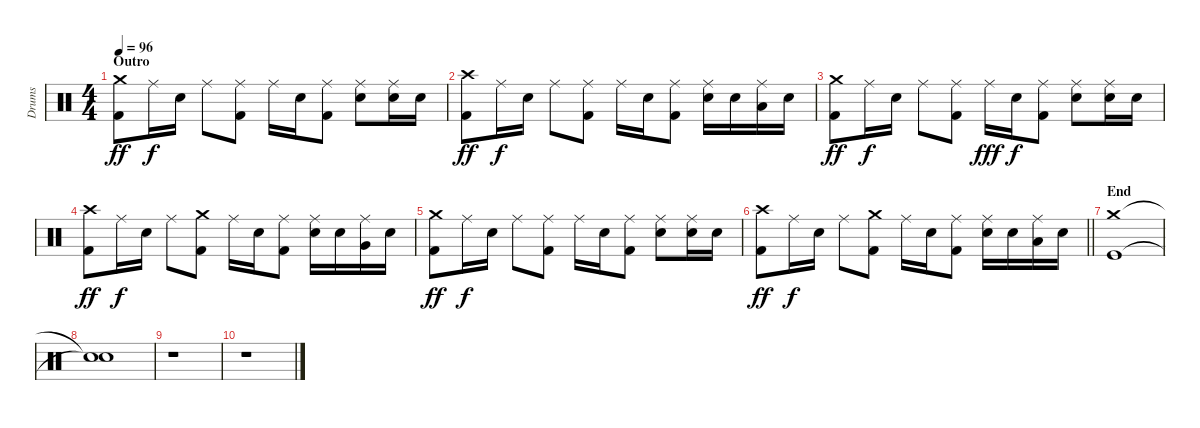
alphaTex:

\track ("Drums" "Drums") {instrument percussion}
\staff {score}
\articulation defaults
\ts (4 4)
\section ("" "Outro")
\tempo 96
\clef neutral
\ks c
("Crash medium (hit)" "Kick (hit) 2").8{dy ff} "Ride (middle)".16{dy f} "Snare (hit) 2".16 "Ride (middle)".8 ("Ride (middle)" "Kick (hit) 2").8 "Ride (middle)".16 "Snare (hit) 2".16 ("Ride (middle)" "Kick (hit) 2").8 ("Ride (middle)" "Snare (hit) 2").8 ("Ride (middle)" "Snare (hit) 2").16 "Snare (hit) 2".16 |
("Crash high (hit)" "Kick (hit) 2").8{dy ff} "Ride (middle)".16{dy f} "Snare (hit) 2".16 "Ride (middle)".8 ("Ride (middle)" "Kick (hit) 2").8 "Ride (middle)".16 "Snare (hit) 2".16 ("Ride (middle)" "Kick (hit) 2").8 ("Ride (middle)" "Snare (hit) 2").16 "Snare (hit) 2".16 ("Ride (middle)" "Low Tom (hit)").16 "Snare (hit) 2".16 |
("Crash medium (hit)" "Kick (hit) 2").8{dy ff} "Ride (middle)".16{dy f} "Snare (hit) 2".16 "Ride (middle)".8 ("Ride (middle)" "Kick (hit) 2").8 "Ride (middle)".16{dy fff} "Snare (hit) 2".16{dy f} ("Ride (middle)" "Kick (hit) 2").8 ("Ride (middle)" "Snare (hit) 2").8 ("Ride (middle)" "Snare (hit) 2").16 "Snare (hit) 2".16 |
("Crash high (hit)" "Kick (hit) 2").8{dy ff} "Ride (middle)".16{dy f} "Snare (hit) 2".16 "Ride (middle)".8 ("Crash medium (hit)" "Kick (hit) 2").8 "Ride (middle)".16 "Snare (hit) 2".16 ("Ride (middle)" "Kick (hit) 2").8 ("Ride (middle)" "Snare (hit) 2").16 "Snare (hit) 2".16 ("Ride (middle)" "Very Low Tom (hit)").16 "Snare (hit) 2".16 |
("Crash medium (hit)" "Kick (hit) 2").8{dy ff} "Ride (middle)".16{dy f} "Snare (hit) 2".16 "Ride (middle)".8 ("Ride (middle)" "Kick (hit) 2").8 "Ride (middle)".16 "Snare (hit) 2".16 ("Ride (middle)" "Kick (hit) 2").8 ("Ride (middle)" "Snare (hit) 2").8 ("Ride (middle)" "Snare (hit) 2").16 "Snare (hit) 2".16 |
\barLineRight lightlight
("Crash high (hit)" "Kick (hit) 2").8{dy ff} "Ride (middle)".16{dy f} "Snare (hit) 2".16 "Ride (middle)".8 ("Crash medium (hit)" "Kick (hit) 2").8 "Ride (middle)".16 "Snare (hit) 2".16 ("Ride (middle)" "Kick (hit) 2").8 ("Ride (middle)" "Snare (hit) 2").16 "Snare (hit) 2".16 ("Ride (middle)" "Low Tom (hit)").16 "Snare (hit) 2".16 |
\section ("" "End")
("Crash medium (hit)" "Kick (hit)").1 |
("Snare (hit)"{t} "Snare (hit)"{t}).1 |
r.1 |
r.1
